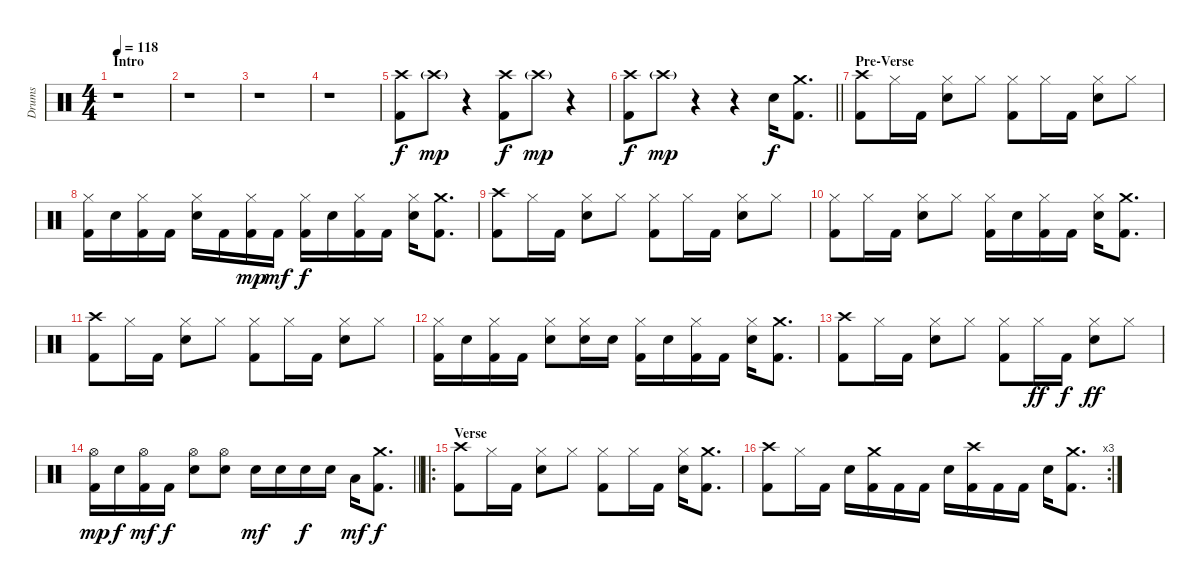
\track ("Drums" "Drums") {instrument percussion}
\staff {score}
\articulation defaults
\ts (4 4)
\section ("" "Intro")
\tempo 118
\clef neutral
\ks c
r.1{dy f} |
r.1 |
r.1 |
r.1 |
("Crash high (hit)" "Kick (hit) 2").8 "Crash high (hit)"{g}.8{dy mp volume 0} r.4 ("Crash high (hit)" "Kick (hit) 2").8{dy f volume 13} "Crash high (hit)"{g}.8{dy mp volume 0} r.4 |
\barLineRight lightlight
("Crash high (hit)" "Kick (hit) 2").8{dy f volume 13} "Crash high (hit)"{g}.8{dy mp volume 0} r.4 r.4 "Snare (hit) 2".16{dy f volume 13} ("Crash medium (hit)" "Kick (hit) 2").8{d} |
\section ("" "Pre-Verse")
("Crash high (hit)" "Kick (hit) 2").8 "Hi-Hat (closed)".16 "Kick (hit) 2".16 ("Hi-Hat (closed)" "Snare (hit) 2").8 "Hi-Hat (closed)".8 ("Hi-Hat (closed)" "Kick (hit) 2").8 "Hi-Hat (closed)".16 "Kick (hit) 2".16 ("Hi-Hat (closed)" "Snare (hit) 2").8 "Hi-Hat (closed)".8 |
("Hi-Hat (closed)" "Kick (hit) 2").16 "Snare (hit) 2".16 ("Hi-Hat (closed)" "Kick (hit) 2").16 "Kick (hit) 2".16 ("Hi-Hat (closed)" "Snare (hit) 2").16 "Kick (hit) 2".16 ("Hi-Hat (closed)" "Kick (hit) 2").16{dy mp} "Kick (hit) 2".16{dy mf} ("Hi-Hat (closed)" "Kick (hit) 2").16{dy f} "Snare (hit) 2".16 ("Hi-Hat (closed)" "Kick (hit) 2").16 "Kick (hit) 2".16 ("Hi-Hat (closed)" "Snare (hit) 2").16 ("Crash medium (hit)" "Kick (hit) 2").8{d} |
("Crash high (hit)" "Kick (hit) 2").8 "Hi-Hat (closed)".16 "Kick (hit) 2".16 ("Hi-Hat (closed)" "Snare (hit) 2").8 "Hi-Hat (closed)".8 ("Hi-Hat (closed)" "Kick (hit) 2").8 "Hi-Hat (closed)".16 "Kick (hit) 2".16 ("Hi-Hat (closed)" "Snare (hit) 2").8 "Hi-Hat (closed)".8 |
("Hi-Hat (closed)" "Kick (hit) 2").8 "Hi-Hat (closed)".16 "Kick (hit) 2".16 ("Hi-Hat (closed)" "Snare (hit) 2").8 "Hi-Hat (closed)".8 ("Hi-Hat (closed)" "Kick (hit) 2").16 "Snare (hit) 2".16 ("Hi-Hat (closed)" "Kick (hit) 2").16 "Kick (hit) 2".16 ("Hi-Hat (closed)" "Snare (hit) 2").16 ("Crash medium (hit)" "Kick (hit) 2").8{d} |
("Crash high (hit)" "Kick (hit) 2").8 "Hi-Hat (closed)".16 "Kick (hit) 2".16 ("Hi-Hat (closed)" "Snare (hit) 2").8 "Hi-Hat (closed)".8 ("Hi-Hat (closed)" "Kick (hit) 2").8 "Hi-Hat (closed)".16 "Kick (hit) 2".16 ("Hi-Hat (closed)" "Snare (hit) 2").8 "Hi-Hat (closed)".8 |
("Hi-Hat (closed)" "Kick (hit) 2").16 "Snare (hit) 2".16 ("Hi-Hat (closed)" "Kick (hit) 2").16 "Kick (hit) 2".16 ("Hi-Hat (closed)" "Snare (hit) 2").8 ("Hi-Hat (closed)" "Snare (hit) 2").16 "Snare (hit) 2".16 ("Hi-Hat (closed)" "Kick (hit) 2").16 "Snare (hit) 2".16 ("Hi-Hat (closed)" "Kick (hit) 2").16 "Kick (hit) 2".16 ("Hi-Hat (closed)" "Snare (hit) 2").16 ("Crash medium (hit)" "Kick (hit) 2").8{d} |
("Crash high (hit)" "Kick (hit) 2").8 "Hi-Hat (closed)".16 "Kick (hit) 2".16 ("Hi-Hat (closed)" "Snare (hit) 2").8 "Hi-Hat (closed)".8 ("Hi-Hat (closed)" "Kick (hit) 2").8 "Hi-Hat (closed)".16{dy ff} "Kick (hit) 2".16{dy f} ("Hi-Hat (closed)" "Snare (hit) 2").8{dy ff} "Hi-Hat (closed)".8 |
\barLineRight lightlight
("Hi-Hat (open)" "Kick (hit) 2").16{dy mp} "Snare (hit) 2".16{dy f} ("Hi-Hat (open)" "Kick (hit) 2").16{dy mf} "Kick (hit) 2".16{dy f} ("Hi-Hat (open)" "Snare (hit) 2").8 ("Hi-Hat (open)" "Snare (hit) 2").8 "Snare (hit) 2".16{dy mf} "Snare (hit) 2".16 "Snare (hit) 2".16{dy f} "Snare (hit) 2".16 "Low Tom (hit)".16{dy mf} ("Crash medium (hit)" "Kick (hit) 2").8{d dy f} |
\ro
\section ("" "Verse")
("Crash high (hit)" "Kick (hit) 2").8 "Hi-Hat (closed)".16 "Kick (hit) 2".16 ("Hi-Hat (closed)" "Snare (hit) 2").8 "Hi-Hat (closed)".8 ("Hi-Hat (closed)" "Kick (hit) 2").8 "Hi-Hat (closed)".16 "Kick (hit) 2".16 ("Hi-Hat (closed)" "Snare (hit) 2").16 ("Crash medium (hit)" "Kick (hit) 2").8{d} |
\rc 3
("Crash high (hit)" "Kick (hit) 2").8 "Hi-Hat (closed)".16 "Kick (hit) 2".16 "Snare (hit) 2".16 ("Crash medium (hit)" "Kick (hit) 2").16 "Kick (hit) 2".16 "Kick (hit) 2".16 "Snare (hit) 2".16 ("Crash high (hit)" "Kick (hit) 2").16 "Kick (hit) 2".16 "Kick (hit) 2".16 "Snare (hit) 2".16 ("Crash medium (hit)" "Kick (hit) 2").8{d}
